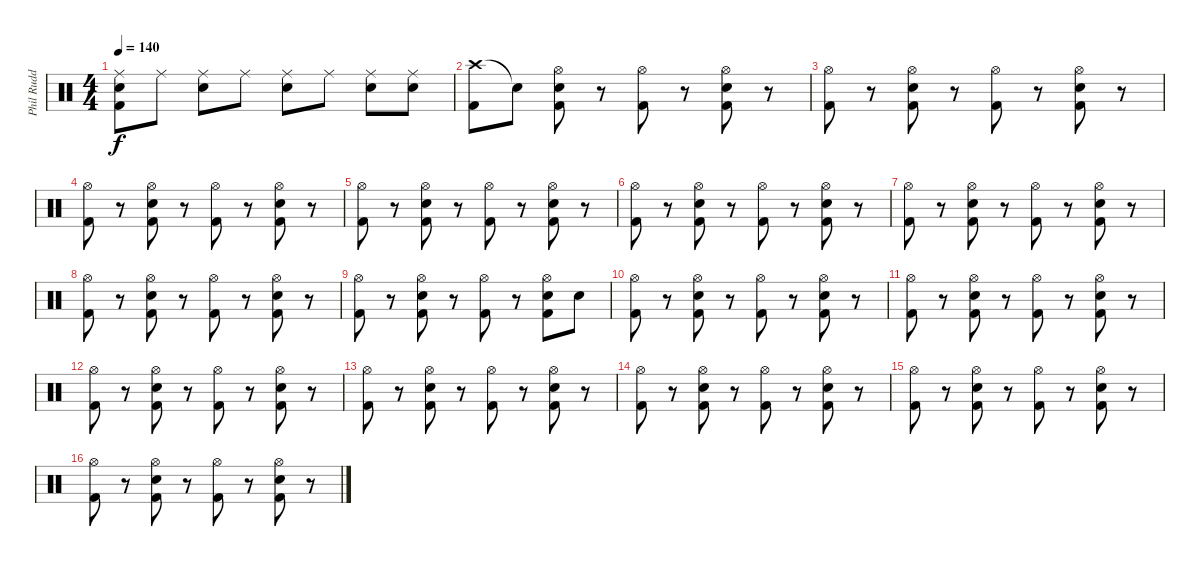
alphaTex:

\track ("Phil Rudd" "Phil Rudd") {instrument percussion}
\staff {score}
\articulation defaults
\ts (4 4)
\tempo 140
\clef neutral
\ks c
("Ride (middle)" "Electric Snare (hit)" "Kick (hit) 2").8{dy f} "Ride (middle)".8 ("Ride (middle)" "Electric Snare (hit)").8 "Ride (middle)".8 ("Ride (middle)" "Electric Snare (hit)").8 "Ride (middle)".8 ("Ride (middle)" "Electric Snare (hit)").8 ("Ride (middle)" "Electric Snare (hit)").8 |
("Crash high (hit)" "Kick (hit) 2").8 "Snare (hit)"{t}.8 ("Hi-Hat (open)" "Electric Snare (hit)" "Kick (hit) 2").8 r.8 ("Hi-Hat (open)" "Kick (hit) 2").8 r.8 ("Hi-Hat (open)" "Electric Snare (hit)" "Kick (hit) 2").8 r.8 |
("Hi-Hat (open)" "Kick (hit) 2").8 r.8 ("Hi-Hat (open)" "Electric Snare (hit)" "Kick (hit) 2").8 r.8 ("Hi-Hat (open)" "Kick (hit) 2").8 r.8 ("Hi-Hat (open)" "Electric Snare (hit)" "Kick (hit) 2").8 r.8 |
("Hi-Hat (open)" "Kick (hit) 2").8 r.8 ("Hi-Hat (open)" "Electric Snare (hit)" "Kick (hit) 2").8 r.8 ("Hi-Hat (open)" "Kick (hit) 2").8 r.8 ("Hi-Hat (open)" "Electric Snare (hit)" "Kick (hit) 2").8 r.8 |
("Hi-Hat (open)" "Kick (hit) 2").8 r.8 ("Hi-Hat (open)" "Electric Snare (hit)" "Kick (hit) 2").8 r.8 ("Hi-Hat (open)" "Kick (hit) 2").8 r.8 ("Hi-Hat (open)" "Electric Snare (hit)" "Kick (hit) 2").8 r.8 |
("Hi-Hat (open)" "Kick (hit) 2").8 r.8 ("Hi-Hat (open)" "Electric Snare (hit)" "Kick (hit) 2").8 r.8 ("Hi-Hat (open)" "Kick (hit) 2").8 r.8 ("Hi-Hat (open)" "Electric Snare (hit)" "Kick (hit) 2").8 r.8 |
("Hi-Hat (open)" "Kick (hit) 2").8 r.8 ("Hi-Hat (open)" "Electric Snare (hit)" "Kick (hit) 2").8 r.8 ("Hi-Hat (open)" "Kick (hit) 2").8 r.8 ("Hi-Hat (open)" "Electric Snare (hit)" "Kick (hit) 2").8 r.8 |
("Hi-Hat (open)" "Kick (hit) 2").8 r.8 ("Hi-Hat (open)" "Electric Snare (hit)" "Kick (hit) 2").8 r.8 ("Hi-Hat (open)" "Kick (hit) 2").8 r.8 ("Hi-Hat (open)" "Electric Snare (hit)" "Kick (hit) 2").8 r.8 |
("Hi-Hat (open)" "Kick (hit) 2").8 r.8 ("Hi-Hat (open)" "Electric Snare (hit)" "Kick (hit) 2").8 r.8 ("Hi-Hat (open)" "Kick (hit) 2").8 r.8 ("Hi-Hat (open)" "Electric Snare (hit)" "Kick (hit) 2").8 "Electric Snare (hit)".8 |
("Hi-Hat (open)" "Kick (hit) 2").8 r.8 ("Hi-Hat (open)" "Electric Snare (hit)" "Kick (hit) 2").8 r.8 ("Hi-Hat (open)" "Kick (hit) 2").8 r.8 ("Hi-Hat (open)" "Electric Snare (hit)" "Kick (hit) 2").8 r.8 |
("Hi-Hat (open)" "Kick (hit) 2").8 r.8 ("Hi-Hat (open)" "Electric Snare (hit)" "Kick (hit) 2").8 r.8 ("Hi-Hat (open)" "Kick (hit) 2").8 r.8 ("Hi-Hat (open)" "Electric Snare (hit)" "Kick (hit) 2").8 r.8 |
("Hi-Hat (open)" "Kick (hit) 2").8 r.8 ("Hi-Hat (open)" "Electric Snare (hit)" "Kick (hit) 2").8 r.8 ("Hi-Hat (open)" "Kick (hit) 2").8 r.8 ("Hi-Hat (open)" "Electric Snare (hit)" "Kick (hit) 2").8 r.8 |
("Hi-Hat (open)" "Kick (hit) 2").8 r.8 ("Hi-Hat (open)" "Electric Snare (hit)" "Kick (hit) 2").8 r.8 ("Hi-Hat (open)" "Kick (hit) 2").8 r.8 ("Hi-Hat (open)" "Electric Snare (hit)" "Kick (hit) 2").8 r.8 |
("Hi-Hat (open)" "Kick (hit) 2").8 r.8 ("Hi-Hat (open)" "Electric Snare (hit)" "Kick (hit) 2").8 r.8 ("Hi-Hat (open)" "Kick (hit) 2").8 r.8 ("Hi-Hat (open)" "Electric Snare (hit)" "Kick (hit) 2").8 r.8 |
("Hi-Hat (open)" "Kick (hit) 2").8 r.8 ("Hi-Hat (open)" "Electric Snare (hit)" "Kick (hit) 2").8 r.8 ("Hi-Hat (open)" "Kick (hit) 2").8 r.8 ("Hi-Hat (open)" "Electric Snare (hit)" "Kick (hit) 2").8 r.8 |
("Hi-Hat (open)" "Kick (hit) 2").8 r.8 ("Hi-Hat (open)" "Electric Snare (hit)" "Kick (hit) 2").8 r.8 ("Hi-Hat (open)" "Kick (hit) 2").8 r.8 ("Hi-Hat (open)" "Electric Snare (hit)" "Kick (hit) 2").8 r.8
